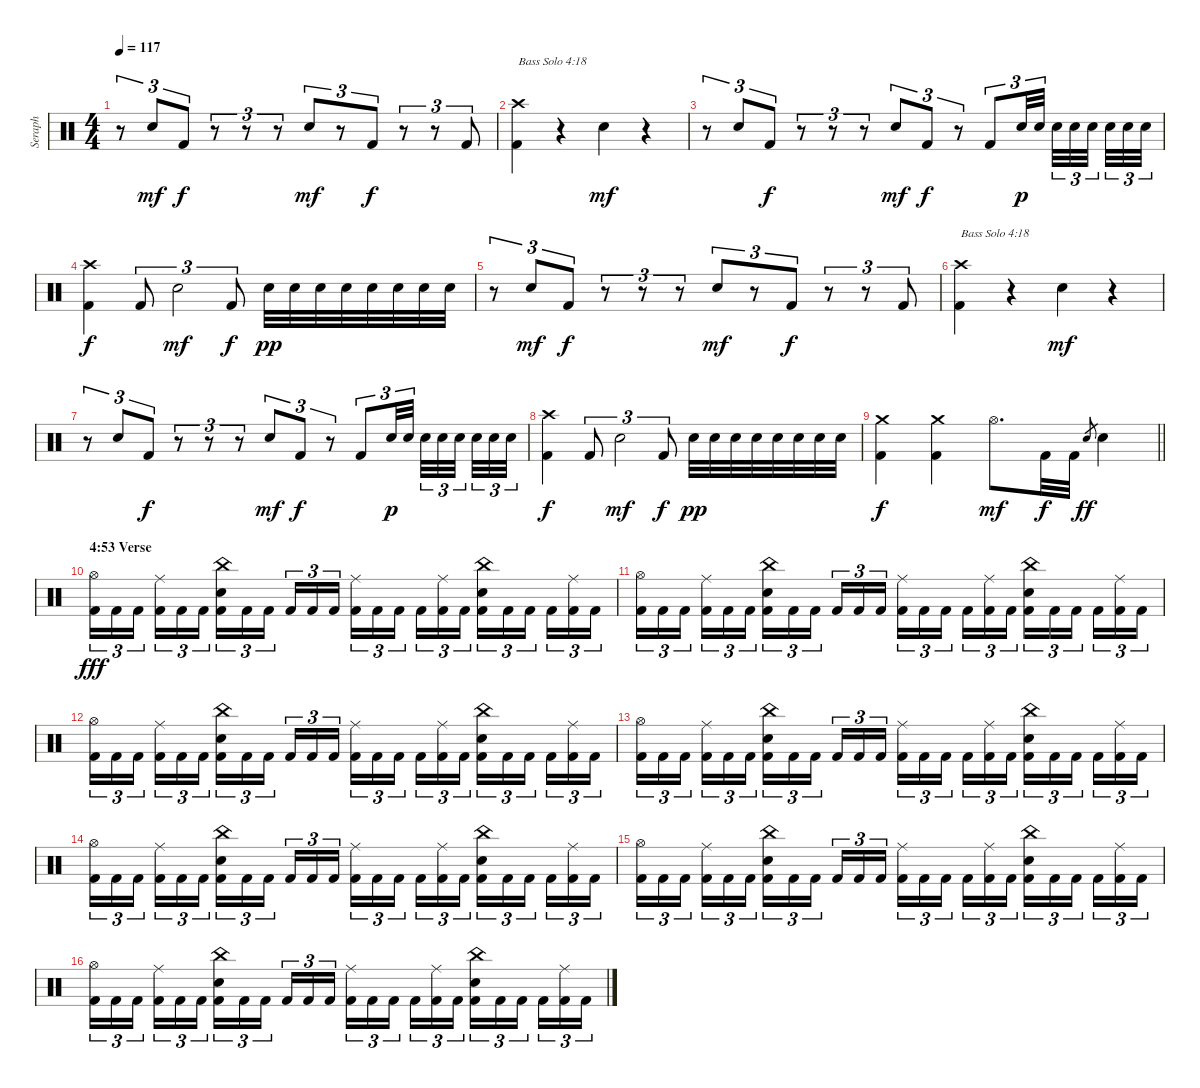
\track ("Seraph" "Seraph") {instrument percussion}
\staff {score}
\articulation defaults
\ts (4 4)
\tempo 117
\clef neutral
\ks c
r.8{tu (3 2) dy pp} "Electric Snare (hit)".8{tu (3 2) dy mf} "Kick (hit) 2".8{tu (3 2) dy f} r.8{tu (3 2)} r.8{tu (3 2)} r.8{tu (3 2)} "Electric Snare (hit)".8{tu (3 2) dy mf} r.8{tu (3 2)} "Kick (hit) 2".8{tu (3 2) dy f} r.8{tu (3 2)} r.8{tu (3 2)} "Kick (hit) 2".8{tu (3 2)} |
("Kick (hit) 2" "Crash high (hit)").4{txt "Bass Solo 4:18"} r.4 "Electric Snare (hit)".4{dy mf} r.4 |
r.8{tu (3 2)} "Electric Snare (hit)".8{tu (3 2)} "Kick (hit) 2".8{tu (3 2) dy f} r.8{tu (3 2)} r.8{tu (3 2)} r.8{tu (3 2)} "Electric Snare (hit)".8{tu (3 2) dy mf} "Kick (hit) 2".8{tu (3 2) dy f} r.8{tu (3 2)} "Kick (hit) 2".8{tu (3 2)} "Electric Snare (hit)".32{tu (3 2) dy p} "Electric Snare (hit)".32{tu (3 2) beam splitsecondary} "Electric Snare (hit)".32{tu (3 2)} "Electric Snare (hit)".32{tu (3 2)} "Electric Snare (hit)".32{tu (3 2) beam splitsecondary} "Electric Snare (hit)".32{tu (3 2)} "Electric Snare (hit)".32{tu (3 2)} "Electric Snare (hit)".32{tu (3 2)} |
("Kick (hit) 2" "Crash high (hit)").4{dy f} "Kick (hit) 2".8{tu (3 2)} "Electric Snare (hit)".2{tu (3 2) dy mf} "Kick (hit) 2".8{tu (3 2) dy f} "Electric Snare (hit)".32{dy pp} "Electric Snare (hit)".32 "Electric Snare (hit)".32 "Electric Snare (hit)".32 "Electric Snare (hit)".32 "Electric Snare (hit)".32 "Electric Snare (hit)".32 "Electric Snare (hit)".32 |
r.8{tu (3 2)} "Electric Snare (hit)".8{tu (3 2) dy mf} "Kick (hit) 2".8{tu (3 2) dy f} r.8{tu (3 2)} r.8{tu (3 2)} r.8{tu (3 2)} "Electric Snare (hit)".8{tu (3 2) dy mf} r.8{tu (3 2)} "Kick (hit) 2".8{tu (3 2) dy f} r.8{tu (3 2)} r.8{tu (3 2)} "Kick (hit) 2".8{tu (3 2)} |
("Kick (hit) 2" "Crash high (hit)").4{txt "Bass Solo 4:18"} r.4 "Electric Snare (hit)".4{dy mf} r.4 |
r.8{tu (3 2)} "Electric Snare (hit)".8{tu (3 2)} "Kick (hit) 2".8{tu (3 2) dy f} r.8{tu (3 2)} r.8{tu (3 2)} r.8{tu (3 2)} "Electric Snare (hit)".8{tu (3 2) dy mf} "Kick (hit) 2".8{tu (3 2) dy f} r.8{tu (3 2)} "Kick (hit) 2".8{tu (3 2)} "Electric Snare (hit)".32{tu (3 2) dy p} "Electric Snare (hit)".32{tu (3 2) beam splitsecondary} "Electric Snare (hit)".32{tu (3 2)} "Electric Snare (hit)".32{tu (3 2)} "Electric Snare (hit)".32{tu (3 2) beam splitsecondary} "Electric Snare (hit)".32{tu (3 2)} "Electric Snare (hit)".32{tu (3 2)} "Electric Snare (hit)".32{tu (3 2)} |
("Kick (hit) 2" "Crash high (hit)").4{dy f} "Kick (hit) 2".8{tu (3 2)} "Electric Snare (hit)".2{tu (3 2) dy mf} "Kick (hit) 2".8{tu (3 2) dy f} "Electric Snare (hit)".32{dy pp} "Electric Snare (hit)".32 "Electric Snare (hit)".32 "Electric Snare (hit)".32 "Electric Snare (hit)".32 "Electric Snare (hit)".32 "Electric Snare (hit)".32 "Electric Snare (hit)".32 |
\barLineRight lightlight
("Kick (hit) 2" "Crash medium (hit)").4{dy f} ("Kick (hit) 2" "Crash medium (hit)").4 "Hi-Hat (open)".8{d dy mf} "Kick (hit) 2".32{dy f} "Kick (hit) 2".32 "Electric Snare (hit)".8{gr dy ff} "Electric Snare (hit)".4 |
\section ("" "4:53 Verse")
("Hi-Hat (open)" "Kick (hit) 2").16{tu (3 2) dy fff} "Kick (hit) 2".16{tu (3 2)} "Kick (hit) 2".16{tu (3 2) beam splitsecondary} ("Ride (middle)" "Kick (hit) 2").16{tu (3 2)} "Kick (hit) 2".16{tu (3 2)} "Kick (hit) 2".16{tu (3 2)} ("China (hit)" "Electric Snare (hit)" "Kick (hit) 2").16{tu (3 2)} "Kick (hit) 2".16{tu (3 2)} "Kick (hit) 2".16{tu (3 2) beam splitsecondary} "Kick (hit) 2".16{tu (3 2)} "Kick (hit) 2".16{tu (3 2)} "Kick (hit) 2".16{tu (3 2)} ("Ride (middle)" "Kick (hit) 2").16{tu (3 2)} "Kick (hit) 2".16{tu (3 2)} "Kick (hit) 2".16{tu (3 2) beam splitsecondary} "Kick (hit) 2".16{tu (3 2)} ("Ride (middle)" "Kick (hit) 2").16{tu (3 2)} "Kick (hit) 2".16{tu (3 2)} ("China (hit)" "Electric Snare (hit)" "Kick (hit) 2").16{tu (3 2)} "Kick (hit) 2".16{tu (3 2)} "Kick (hit) 2".16{tu (3 2) beam splitsecondary} "Kick (hit) 2".16{tu (3 2)} ("Ride (middle)" "Kick (hit) 2").16{tu (3 2)} "Kick (hit) 2".16{tu (3 2)} |
("Hi-Hat (open)" "Kick (hit) 2").16{tu (3 2)} "Kick (hit) 2".16{tu (3 2)} "Kick (hit) 2".16{tu (3 2) beam splitsecondary} ("Ride (middle)" "Kick (hit) 2").16{tu (3 2)} "Kick (hit) 2".16{tu (3 2)} "Kick (hit) 2".16{tu (3 2)} ("China (hit)" "Electric Snare (hit)" "Kick (hit) 2").16{tu (3 2)} "Kick (hit) 2".16{tu (3 2)} "Kick (hit) 2".16{tu (3 2) beam splitsecondary} "Kick (hit) 2".16{tu (3 2)} "Kick (hit) 2".16{tu (3 2)} "Kick (hit) 2".16{tu (3 2)} ("Ride (middle)" "Kick (hit) 2").16{tu (3 2)} "Kick (hit) 2".16{tu (3 2)} "Kick (hit) 2".16{tu (3 2) beam splitsecondary} "Kick (hit) 2".16{tu (3 2)} ("Ride (middle)" "Kick (hit) 2").16{tu (3 2)} "Kick (hit) 2".16{tu (3 2)} ("China (hit)" "Electric Snare (hit)" "Kick (hit) 2").16{tu (3 2)} "Kick (hit) 2".16{tu (3 2)} "Kick (hit) 2".16{tu (3 2) beam splitsecondary} "Kick (hit) 2".16{tu (3 2)} ("Ride (middle)" "Kick (hit) 2").16{tu (3 2)} "Kick (hit) 2".16{tu (3 2)} |
("Hi-Hat (open)" "Kick (hit) 2").16{tu (3 2)} "Kick (hit) 2".16{tu (3 2)} "Kick (hit) 2".16{tu (3 2) beam splitsecondary} ("Ride (middle)" "Kick (hit) 2").16{tu (3 2)} "Kick (hit) 2".16{tu (3 2)} "Kick (hit) 2".16{tu (3 2)} ("China (hit)" "Electric Snare (hit)" "Kick (hit) 2").16{tu (3 2)} "Kick (hit) 2".16{tu (3 2)} "Kick (hit) 2".16{tu (3 2) beam splitsecondary} "Kick (hit) 2".16{tu (3 2)} "Kick (hit) 2".16{tu (3 2)} "Kick (hit) 2".16{tu (3 2)} ("Ride (middle)" "Kick (hit) 2").16{tu (3 2)} "Kick (hit) 2".16{tu (3 2)} "Kick (hit) 2".16{tu (3 2) beam splitsecondary} "Kick (hit) 2".16{tu (3 2)} ("Ride (middle)" "Kick (hit) 2").16{tu (3 2)} "Kick (hit) 2".16{tu (3 2)} ("China (hit)" "Electric Snare (hit)" "Kick (hit) 2").16{tu (3 2)} "Kick (hit) 2".16{tu (3 2)} "Kick (hit) 2".16{tu (3 2) beam splitsecondary} "Kick (hit) 2".16{tu (3 2)} ("Ride (middle)" "Kick (hit) 2").16{tu (3 2)} "Kick (hit) 2".16{tu (3 2)} |
("Hi-Hat (open)" "Kick (hit) 2").16{tu (3 2)} "Kick (hit) 2".16{tu (3 2)} "Kick (hit) 2".16{tu (3 2) beam splitsecondary} ("Ride (middle)" "Kick (hit) 2").16{tu (3 2)} "Kick (hit) 2".16{tu (3 2)} "Kick (hit) 2".16{tu (3 2)} ("China (hit)" "Electric Snare (hit)" "Kick (hit) 2").16{tu (3 2)} "Kick (hit) 2".16{tu (3 2)} "Kick (hit) 2".16{tu (3 2) beam splitsecondary} "Kick (hit) 2".16{tu (3 2)} "Kick (hit) 2".16{tu (3 2)} "Kick (hit) 2".16{tu (3 2)} ("Ride (middle)" "Kick (hit) 2").16{tu (3 2)} "Kick (hit) 2".16{tu (3 2)} "Kick (hit) 2".16{tu (3 2) beam splitsecondary} "Kick (hit) 2".16{tu (3 2)} ("Ride (middle)" "Kick (hit) 2").16{tu (3 2)} "Kick (hit) 2".16{tu (3 2)} ("China (hit)" "Electric Snare (hit)" "Kick (hit) 2").16{tu (3 2)} "Kick (hit) 2".16{tu (3 2)} "Kick (hit) 2".16{tu (3 2) beam splitsecondary} "Kick (hit) 2".16{tu (3 2)} ("Ride (middle)" "Kick (hit) 2").16{tu (3 2)} "Kick (hit) 2".16{tu (3 2)} |
("Hi-Hat (open)" "Kick (hit) 2").16{tu (3 2)} "Kick (hit) 2".16{tu (3 2)} "Kick (hit) 2".16{tu (3 2) beam splitsecondary} ("Ride (middle)" "Kick (hit) 2").16{tu (3 2)} "Kick (hit) 2".16{tu (3 2)} "Kick (hit) 2".16{tu (3 2)} ("China (hit)" "Electric Snare (hit)" "Kick (hit) 2").16{tu (3 2)} "Kick (hit) 2".16{tu (3 2)} "Kick (hit) 2".16{tu (3 2) beam splitsecondary} "Kick (hit) 2".16{tu (3 2)} "Kick (hit) 2".16{tu (3 2)} "Kick (hit) 2".16{tu (3 2)} ("Ride (middle)" "Kick (hit) 2").16{tu (3 2)} "Kick (hit) 2".16{tu (3 2)} "Kick (hit) 2".16{tu (3 2) beam splitsecondary} "Kick (hit) 2".16{tu (3 2)} ("Ride (middle)" "Kick (hit) 2").16{tu (3 2)} "Kick (hit) 2".16{tu (3 2)} ("China (hit)" "Electric Snare (hit)" "Kick (hit) 2").16{tu (3 2)} "Kick (hit) 2".16{tu (3 2)} "Kick (hit) 2".16{tu (3 2) beam splitsecondary} "Kick (hit) 2".16{tu (3 2)} ("Ride (middle)" "Kick (hit) 2").16{tu (3 2)} "Kick (hit) 2".16{tu (3 2)} |
("Hi-Hat (open)" "Kick (hit) 2").16{tu (3 2)} "Kick (hit) 2".16{tu (3 2)} "Kick (hit) 2".16{tu (3 2) beam splitsecondary} ("Ride (middle)" "Kick (hit) 2").16{tu (3 2)} "Kick (hit) 2".16{tu (3 2)} "Kick (hit) 2".16{tu (3 2)} ("China (hit)" "Electric Snare (hit)" "Kick (hit) 2").16{tu (3 2)} "Kick (hit) 2".16{tu (3 2)} "Kick (hit) 2".16{tu (3 2) beam splitsecondary} "Kick (hit) 2".16{tu (3 2)} "Kick (hit) 2".16{tu (3 2)} "Kick (hit) 2".16{tu (3 2)} ("Ride (middle)" "Kick (hit) 2").16{tu (3 2)} "Kick (hit) 2".16{tu (3 2)} "Kick (hit) 2".16{tu (3 2) beam splitsecondary} "Kick (hit) 2".16{tu (3 2)} ("Ride (middle)" "Kick (hit) 2").16{tu (3 2)} "Kick (hit) 2".16{tu (3 2)} ("China (hit)" "Electric Snare (hit)" "Kick (hit) 2").16{tu (3 2)} "Kick (hit) 2".16{tu (3 2)} "Kick (hit) 2".16{tu (3 2) beam splitsecondary} "Kick (hit) 2".16{tu (3 2)} ("Ride (middle)" "Kick (hit) 2").16{tu (3 2)} "Kick (hit) 2".16{tu (3 2)} |
("Hi-Hat (open)" "Kick (hit) 2").16{tu (3 2)} "Kick (hit) 2".16{tu (3 2)} "Kick (hit) 2".16{tu (3 2) beam splitsecondary} ("Ride (middle)" "Kick (hit) 2").16{tu (3 2)} "Kick (hit) 2".16{tu (3 2)} "Kick (hit) 2".16{tu (3 2)} ("China (hit)" "Electric Snare (hit)" "Kick (hit) 2").16{tu (3 2)} "Kick (hit) 2".16{tu (3 2)} "Kick (hit) 2".16{tu (3 2) beam splitsecondary} "Kick (hit) 2".16{tu (3 2)} "Kick (hit) 2".16{tu (3 2)} "Kick (hit) 2".16{tu (3 2)} ("Ride (middle)" "Kick (hit) 2").16{tu (3 2)} "Kick (hit) 2".16{tu (3 2)} "Kick (hit) 2".16{tu (3 2) beam splitsecondary} "Kick (hit) 2".16{tu (3 2)} ("Ride (middle)" "Kick (hit) 2").16{tu (3 2)} "Kick (hit) 2".16{tu (3 2)} ("China (hit)" "Electric Snare (hit)" "Kick (hit) 2").16{tu (3 2)} "Kick (hit) 2".16{tu (3 2)} "Kick (hit) 2".16{tu (3 2) beam splitsecondary} "Kick (hit) 2".16{tu (3 2)} ("Ride (middle)" "Kick (hit) 2").16{tu (3 2)} "Kick (hit) 2".16{tu (3 2)}
